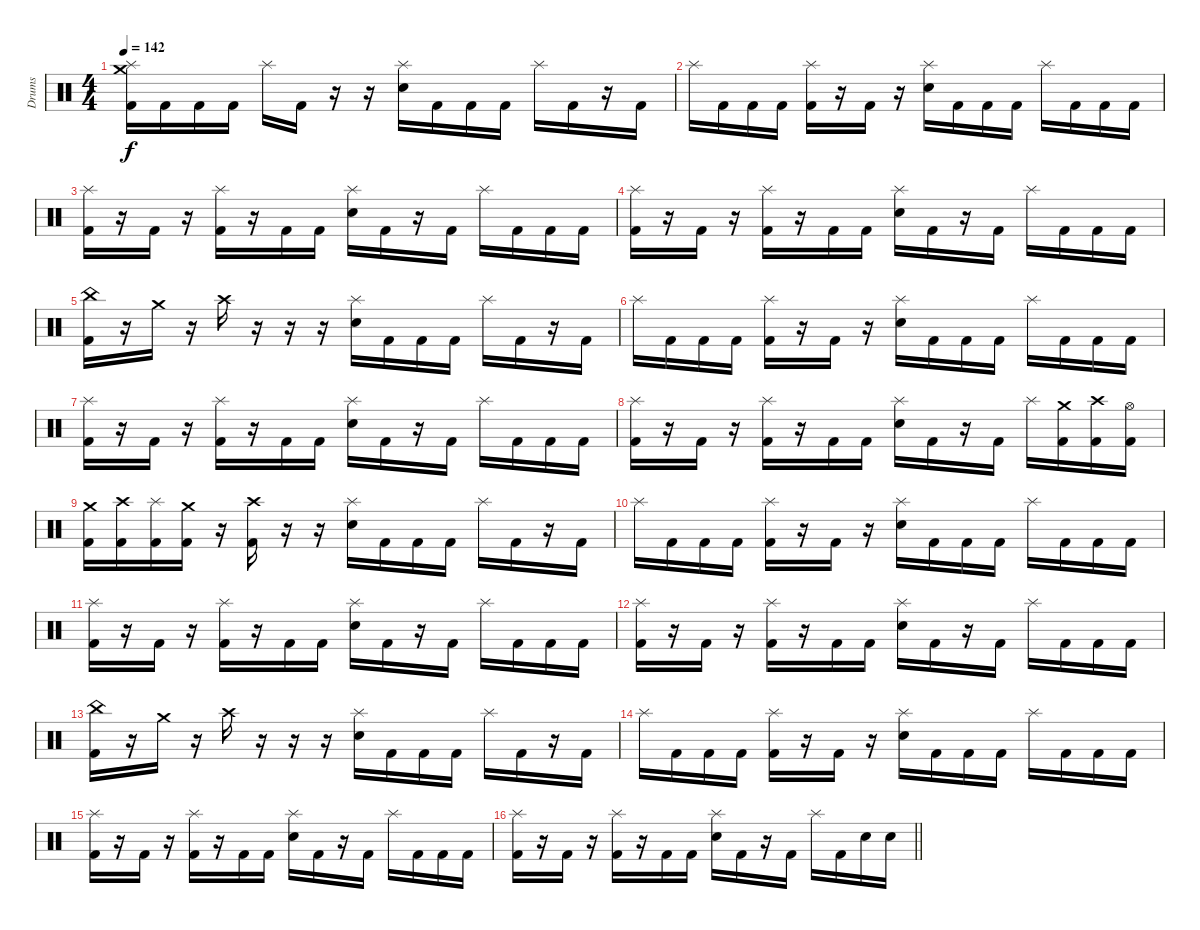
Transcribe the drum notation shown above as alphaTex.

\track ("Drums" "Drums") {instrument percussion}
\staff {score}
\articulation defaults
\ts (4 4)
\section ("" "")
\tempo 142
\clef neutral
\ks c
("Crash medium (hit)" "Splash (hit)" "Kick (hit) 2").16{dy f} "Kick (hit) 2".16 "Kick (hit) 2".16 "Kick (hit) 2".16 "Splash (hit)".16 "Kick (hit) 2".16 r.16 r.16 ("Splash (hit)" "Electric Snare (hit)").16 "Kick (hit) 2".16 "Kick (hit) 2".16 "Kick (hit) 2".16 "Splash (hit)".16 "Kick (hit) 2".16 r.16 "Kick (hit) 2".16 |
"Splash (hit)".16 "Kick (hit) 2".16 "Kick (hit) 2".16 "Kick (hit) 2".16 ("Splash (hit)" "Kick (hit) 2").16 r.16 "Kick (hit) 2".16 r.16 ("Splash (hit)" "Electric Snare (hit)").16 "Kick (hit) 2".16 "Kick (hit) 2".16 "Kick (hit) 2".16 "Splash (hit)".16 "Kick (hit) 2".16 "Kick (hit) 2".16 "Kick (hit) 2".16 |
("Splash (hit)" "Kick (hit) 2").16 r.16 "Kick (hit) 2".16 r.16 ("Splash (hit)" "Kick (hit) 2").16 r.16 "Kick (hit) 2".16 "Kick (hit) 2".16 ("Splash (hit)" "Electric Snare (hit)").16 "Kick (hit) 2".16 r.16 "Kick (hit) 2".16 "Splash (hit)".16 "Kick (hit) 2".16 "Kick (hit) 2".16 "Kick (hit) 2".16 |
("Splash (hit)" "Kick (hit) 2").16 r.16 "Kick (hit) 2".16 r.16 ("Splash (hit)" "Kick (hit) 2").16 r.16 "Kick (hit) 2".16 "Kick (hit) 2".16 ("Splash (hit)" "Electric Snare (hit)").16 "Kick (hit) 2".16 r.16 "Kick (hit) 2".16 "Splash (hit)".16 "Kick (hit) 2".16 "Kick (hit) 2".16 "Kick (hit) 2".16 |
("China (hit)" "Kick (hit) 2").16 r.16 "Crash medium (hit)".16 r.16 "Crash high (hit)".16 r.16 r.16 r.16 ("Splash (hit)" "Electric Snare (hit)").16 "Kick (hit) 2".16 "Kick (hit) 2".16 "Kick (hit) 2".16 "Splash (hit)".16 "Kick (hit) 2".16 r.16 "Kick (hit) 2".16 |
"Splash (hit)".16 "Kick (hit) 2".16 "Kick (hit) 2".16 "Kick (hit) 2".16 ("Splash (hit)" "Kick (hit) 2").16 r.16 "Kick (hit) 2".16 r.16 ("Splash (hit)" "Electric Snare (hit)").16 "Kick (hit) 2".16 "Kick (hit) 2".16 "Kick (hit) 2".16 "Splash (hit)".16 "Kick (hit) 2".16 "Kick (hit) 2".16 "Kick (hit) 2".16 |
("Splash (hit)" "Kick (hit) 2").16 r.16 "Kick (hit) 2".16 r.16 ("Splash (hit)" "Kick (hit) 2").16 r.16 "Kick (hit) 2".16 "Kick (hit) 2".16 ("Splash (hit)" "Electric Snare (hit)").16 "Kick (hit) 2".16 r.16 "Kick (hit) 2".16 "Splash (hit)".16 "Kick (hit) 2".16 "Kick (hit) 2".16 "Kick (hit) 2".16 |
("Splash (hit)" "Kick (hit) 2").16 r.16 "Kick (hit) 2".16 r.16 ("Splash (hit)" "Kick (hit) 2").16 r.16 "Kick (hit) 2".16 "Kick (hit) 2".16 ("Splash (hit)" "Electric Snare (hit)").16 "Kick (hit) 2".16 r.16 "Kick (hit) 2".16 "Splash (hit)".16 ("Crash medium (hit)" "Kick (hit) 2").16 ("Crash high (hit)" "Kick (hit) 2").16 ("Hi-Hat (open)" "Kick (hit) 2").16 |
("Crash medium (hit)" "Kick (hit) 2").16 ("Crash high (hit)" "Kick (hit) 2").16 ("Splash (hit)" "Kick (hit) 2").16 ("Crash medium (hit)" "Kick (hit) 2").16 r.16 ("Crash high (hit)" "Kick (hit) 2").16 r.16 r.16 ("Splash (hit)" "Electric Snare (hit)").16 "Kick (hit) 2".16 "Kick (hit) 2".16 "Kick (hit) 2".16 "Splash (hit)".16 "Kick (hit) 2".16 r.16 "Kick (hit) 2".16 |
"Splash (hit)".16 "Kick (hit) 2".16 "Kick (hit) 2".16 "Kick (hit) 2".16 ("Splash (hit)" "Kick (hit) 2").16 r.16 "Kick (hit) 2".16 r.16 ("Splash (hit)" "Electric Snare (hit)").16 "Kick (hit) 2".16 "Kick (hit) 2".16 "Kick (hit) 2".16 "Splash (hit)".16 "Kick (hit) 2".16 "Kick (hit) 2".16 "Kick (hit) 2".16 |
("Splash (hit)" "Kick (hit) 2").16 r.16 "Kick (hit) 2".16 r.16 ("Splash (hit)" "Kick (hit) 2").16 r.16 "Kick (hit) 2".16 "Kick (hit) 2".16 ("Splash (hit)" "Electric Snare (hit)").16 "Kick (hit) 2".16 r.16 "Kick (hit) 2".16 "Splash (hit)".16 "Kick (hit) 2".16 "Kick (hit) 2".16 "Kick (hit) 2".16 |
("Splash (hit)" "Kick (hit) 2").16 r.16 "Kick (hit) 2".16 r.16 ("Splash (hit)" "Kick (hit) 2").16 r.16 "Kick (hit) 2".16 "Kick (hit) 2".16 ("Splash (hit)" "Electric Snare (hit)").16 "Kick (hit) 2".16 r.16 "Kick (hit) 2".16 "Splash (hit)".16 "Kick (hit) 2".16 "Kick (hit) 2".16 "Kick (hit) 2".16 |
("China (hit)" "Kick (hit) 2").16 r.16 "Crash medium (hit)".16 r.16 "Crash high (hit)".16 r.16 r.16 r.16 ("Splash (hit)" "Electric Snare (hit)").16 "Kick (hit) 2".16 "Kick (hit) 2".16 "Kick (hit) 2".16 "Splash (hit)".16 "Kick (hit) 2".16 r.16 "Kick (hit) 2".16 |
"Splash (hit)".16 "Kick (hit) 2".16 "Kick (hit) 2".16 "Kick (hit) 2".16 ("Splash (hit)" "Kick (hit) 2").16 r.16 "Kick (hit) 2".16 r.16 ("Splash (hit)" "Electric Snare (hit)").16 "Kick (hit) 2".16 "Kick (hit) 2".16 "Kick (hit) 2".16 "Splash (hit)".16 "Kick (hit) 2".16 "Kick (hit) 2".16 "Kick (hit) 2".16 |
("Splash (hit)" "Kick (hit) 2").16 r.16 "Kick (hit) 2".16 r.16 ("Splash (hit)" "Kick (hit) 2").16 r.16 "Kick (hit) 2".16 "Kick (hit) 2".16 ("Splash (hit)" "Electric Snare (hit)").16 "Kick (hit) 2".16 r.16 "Kick (hit) 2".16 "Splash (hit)".16 "Kick (hit) 2".16 "Kick (hit) 2".16 "Kick (hit) 2".16 |
\barLineRight lightlight
("Splash (hit)" "Kick (hit) 2").16 r.16 "Kick (hit) 2".16 r.16 ("Splash (hit)" "Kick (hit) 2").16 r.16 "Kick (hit) 2".16 "Kick (hit) 2".16 ("Splash (hit)" "Electric Snare (hit)").16 "Kick (hit) 2".16 r.16 "Kick (hit) 2".16 "Splash (hit)".16 "Kick (hit) 2".16 "Electric Snare (hit)".16 "Electric Snare (hit)".16
